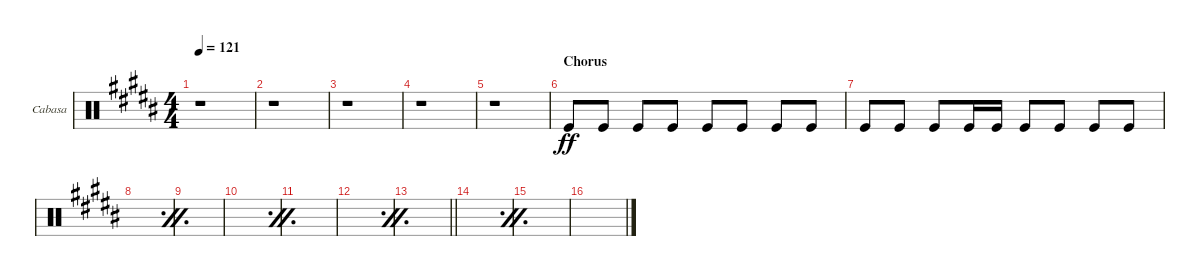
\defaultSystemsLayout 4
\bracketExtendMode groupsimilarinstruments
\firstSystemTrackNameOrientation horizontal
\otherSystemsTrackNameOrientation horizontal
\track ("Cabasa" "Cabasa") {instrument percussion}
\staff {score}
\articulation defaults
\ts (4 4)
\tempo 121
\clef neutral
\scale
0.333333
\ks b
r.1{dy ff} |
\scale
0.333333 r.1 |
\scale
0.333333 r.1 |
\scale
0.333333 r.1 |
\scale
0.333333 r.1 |
\section ("" "Chorus")
\scale
0.444444 "Kick (hit)".8 "Kick (hit)".8 "Kick (hit)".8 "Kick (hit)".8 "Kick (hit)".8 "Kick (hit)".8 "Kick (hit)".8 "Kick (hit)".8 |
\scale
0.517241 "Kick (hit)".8 "Kick (hit)".8 "Kick (hit)".8 "Kick (hit)".16 "Kick (hit)".16 "Kick (hit)".8 "Kick (hit)".8 "Kick (hit)".8 "Kick (hit)".8 |
\simile firstofdouble
\scale
0.306513 |
\simile secondofdouble
\scale
0.241379 |
\simile firstofdouble
\scale
0.256705 |
\simile secondofdouble
\scale
0.310345 |
\simile firstofdouble
\scale
0.32567 |
\simile secondofdouble
\scale
0.268116
\barLineRight lightlight
|
\simile firstofdouble
\scale
0.333333 |
\simile secondofdouble
\scale
0.333333 |
\simile firstofdouble
\scale
0.333333
